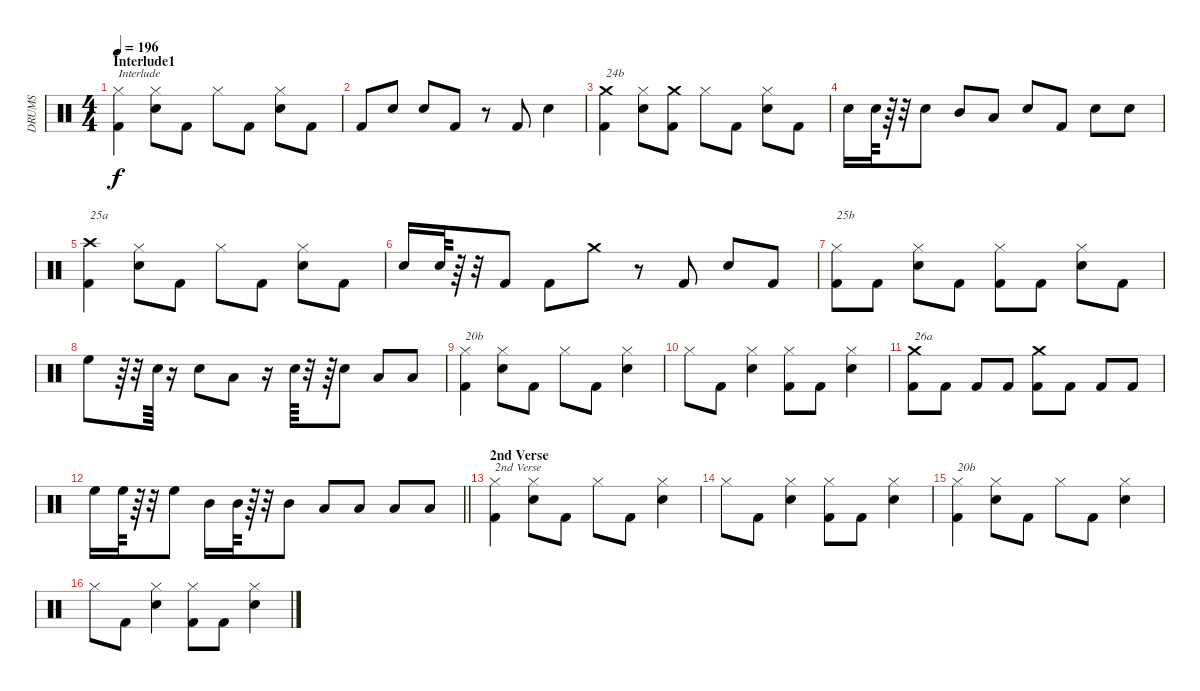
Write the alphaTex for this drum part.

\track ("DRUMS" "DRUMS") {instrument percussion}
\staff {score}
\articulation defaults
\ts (4 4)
\section ("" "Interlude1")
\tempo 196
\clef neutral
\ks c
("Hi-Hat (closed)" "Kick (hit) 2").4{txt "Interlude" dy f} ("Hi-Hat (closed)" "Snare (hit) 2").8 "Kick (hit) 2".8 "Hi-Hat (closed)".8 "Kick (hit) 2".8 ("Hi-Hat (closed)" "Snare (hit) 2").8 "Kick (hit) 2".8 |
"Kick (hit) 2".8 "Snare (hit) 2".8 "Snare (hit) 2".8 "Kick (hit) 2".8 r.8 "Kick (hit) 2".8 "Snare (hit) 2".4 |
("Crash medium (hit)" "Kick (hit) 2").4{txt "24b"} ("Hi-Hat (closed)" "Snare (hit) 2").8 ("Crash medium (hit)" "Kick (hit) 2").8 "Hi-Hat (closed)".8 "Kick (hit) 2".8 ("Hi-Hat (closed)" "Snare (hit) 2").8 "Kick (hit) 2".8 |
"Snare (hit) 2".16 "Snare (hit) 2".64 r.64 r.32 "Snare (hit) 2".8 "Mid Tom (hit)".8 "Low Floor Tom (hit)".8 "Snare (hit) 2".8 "Kick (hit) 2".8 "Snare (hit) 2".8 "Snare (hit) 2".8 |
("Crash high (hit)" "Kick (hit) 2").4{txt "25a"} ("Hi-Hat (closed)" "Snare (hit) 2").8 "Kick (hit) 2".8 "Hi-Hat (closed)".8 "Kick (hit) 2".8 ("Hi-Hat (closed)" "Snare (hit) 2").8 "Kick (hit) 2".8 |
"Snare (hit) 2".16 "Snare (hit) 2".64 r.64 r.32 "Kick (hit) 2".8 "Kick (hit) 2".8 "Crash medium (hit)".8 r.8 "Kick (hit) 2".8 "Snare (hit) 2".8 "Kick (hit) 2".8 |
("Hi-Hat (closed)" "Kick (hit) 2").8{txt "25b"} "Kick (hit) 2".8 ("Hi-Hat (closed)" "Snare (hit) 2").8 "Kick (hit) 2".8 ("Hi-Hat (closed)" "Kick (hit) 2").8 "Kick (hit) 2".8 ("Hi-Hat (closed)" "Snare (hit) 2").8 "Kick (hit) 2".8 |
"High Floor Tom (hit)".8 r.64 r.32 "Snare (hit) 2".64 r.16 "Snare (hit) 2".8 "Low Tom (hit)".8 r.16 "Snare (hit) 2".64 r.32 r.64 "Snare (hit) 2".8 "Low Floor Tom (hit)".8 "Low Floor Tom (hit)".8 |
("Hi-Hat (closed)" "Kick (hit) 2").4{txt "20b"} ("Hi-Hat (closed)" "Snare (hit) 2").8 "Kick (hit) 2".8 "Hi-Hat (closed)".8 "Kick (hit) 2".8 ("Hi-Hat (closed)" "Snare (hit) 2").4 |
"Hi-Hat (closed)".8 "Kick (hit) 2".8 ("Hi-Hat (closed)" "Snare (hit) 2").4 ("Hi-Hat (closed)" "Kick (hit) 2").8 "Kick (hit) 2".8 ("Hi-Hat (closed)" "Snare (hit) 2").4 |
("Crash medium (hit)" "Kick (hit) 2").8{txt "26a"} "Kick (hit) 2".8 "Kick (hit) 2".8 "Kick (hit) 2".8 ("Crash medium (hit)" "Kick (hit) 2").8 "Kick (hit) 2".8 "Kick (hit) 2".8 "Kick (hit) 2".8 |
\barLineRight lightlight "High Floor Tom (hit)".16 "High Floor Tom (hit)".64
r.64 r.32 "High Floor Tom (hit)".8 "Mid Tom (hit)".16 "Mid Tom (hit)".64 r.64 r.32 "Mid Tom (hit)".8 "Low Tom (hit)".8 "Low Tom (hit)".8 "Low Floor Tom (hit)".8 "Low Floor Tom (hit)".8 |
\section ("" "2nd Verse")
("Hi-Hat (closed)" "Kick (hit) 2").4{txt "2nd Verse"} ("Hi-Hat (closed)" "Snare (hit) 2").8 "Kick (hit) 2".8 "Hi-Hat (closed)".8 "Kick (hit) 2".8 ("Hi-Hat (closed)" "Snare (hit) 2").4 |
"Hi-Hat (closed)".8 "Kick (hit) 2".8 ("Hi-Hat (closed)" "Snare (hit) 2").4 ("Hi-Hat (closed)" "Kick (hit) 2").8 "Kick (hit) 2".8 ("Hi-Hat (closed)" "Snare (hit) 2").4 |
("Hi-Hat (closed)" "Kick (hit) 2").4{txt "20b"} ("Hi-Hat (closed)" "Snare (hit) 2").8 "Kick (hit) 2".8 "Hi-Hat (closed)".8 "Kick (hit) 2".8 ("Hi-Hat (closed)" "Snare (hit) 2").4 |
"Hi-Hat (closed)".8 "Kick (hit) 2".8 ("Hi-Hat (closed)" "Snare (hit) 2").4 ("Hi-Hat (closed)" "Kick (hit) 2").8 "Kick (hit) 2".8 ("Hi-Hat (closed)" "Snare (hit) 2").4
